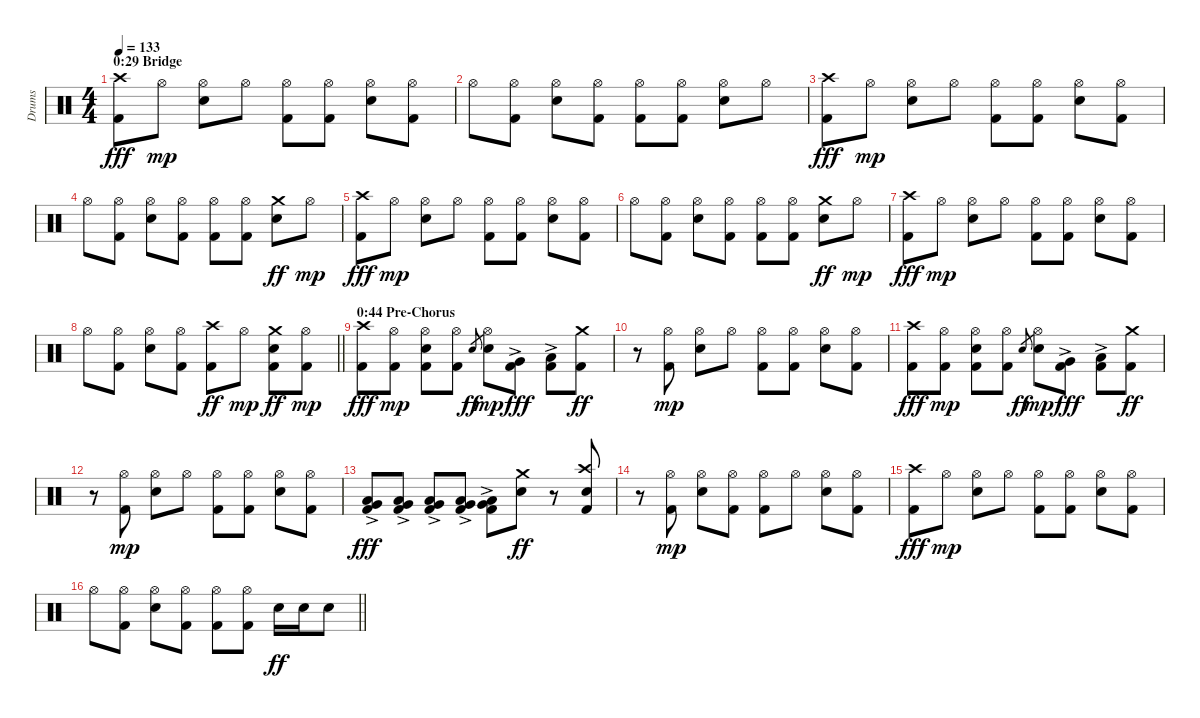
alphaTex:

\track ("Drums" "Drums") {instrument percussion}
\staff {score}
\articulation defaults
\ts (4 4)
\section ("" "0:29 Bridge")
\tempo 133
\clef neutral
\ks c
("Kick (hit) 2" "Crash high (hit)").8{dy fff} "Hi-Hat (open)".8{dy mp} ("Electric Snare (hit)" "Hi-Hat (open)").8 "Hi-Hat (open)".8 ("Kick (hit) 2" "Hi-Hat (open)").8 ("Kick (hit) 2" "Hi-Hat (open)").8 ("Electric Snare (hit)" "Hi-Hat (open)").8 ("Kick (hit) 2" "Hi-Hat (open)").8 |
"Hi-Hat (open)".8 ("Kick (hit) 2" "Hi-Hat (open)").8 ("Electric Snare (hit)" "Hi-Hat (open)").8 ("Kick (hit) 2" "Hi-Hat (open)").8 ("Kick (hit) 2" "Hi-Hat (open)").8 ("Kick (hit) 2" "Hi-Hat (open)").8 ("Electric Snare (hit)" "Hi-Hat (open)").8 "Hi-Hat (open)".8 |
("Kick (hit) 2" "Crash high (hit)").8{dy fff} "Hi-Hat (open)".8{dy mp} ("Electric Snare (hit)" "Hi-Hat (open)").8 "Hi-Hat (open)".8 ("Kick (hit) 2" "Hi-Hat (open)").8 ("Kick (hit) 2" "Hi-Hat (open)").8 ("Electric Snare (hit)" "Hi-Hat (open)").8 ("Kick (hit) 2" "Hi-Hat (open)").8 |
"Hi-Hat (open)".8 ("Kick (hit) 2" "Hi-Hat (open)").8 ("Electric Snare (hit)" "Hi-Hat (open)").8 ("Kick (hit) 2" "Hi-Hat (open)").8 ("Kick (hit) 2" "Hi-Hat (open)").8 ("Kick (hit) 2" "Hi-Hat (open)").8 ("Electric Snare (hit)" "Crash medium (hit)").8{dy ff} "Hi-Hat (open)".8{dy mp} |
("Kick (hit) 2" "Crash high (hit)").8{dy fff} "Hi-Hat (open)".8{dy mp} ("Electric Snare (hit)" "Hi-Hat (open)").8 "Hi-Hat (open)".8 ("Kick (hit) 2" "Hi-Hat (open)").8 ("Kick (hit) 2" "Hi-Hat (open)").8 ("Electric Snare (hit)" "Hi-Hat (open)").8 ("Kick (hit) 2" "Hi-Hat (open)").8 |
"Hi-Hat (open)".8 ("Kick (hit) 2" "Hi-Hat (open)").8 ("Electric Snare (hit)" "Hi-Hat (open)").8 ("Kick (hit) 2" "Hi-Hat (open)").8 ("Kick (hit) 2" "Hi-Hat (open)").8 ("Kick (hit) 2" "Hi-Hat (open)").8 ("Electric Snare (hit)" "Crash medium (hit)").8{dy ff} "Hi-Hat (open)".8{dy mp} |
("Kick (hit) 2" "Crash high (hit)").8{dy fff} "Hi-Hat (open)".8{dy mp} ("Electric Snare (hit)" "Hi-Hat (open)").8 "Hi-Hat (open)".8 ("Kick (hit) 2" "Hi-Hat (open)").8 ("Kick (hit) 2" "Hi-Hat (open)").8 ("Electric Snare (hit)" "Hi-Hat (open)").8 ("Kick (hit) 2" "Hi-Hat (open)").8 |
\barLineRight lightlight "Hi-Hat (open)".8
("Kick (hit) 2" "Hi-Hat (open)").8 ("Electric Snare (hit)" "Hi-Hat (open)").8 ("Kick (hit) 2" "Hi-Hat (open)").8 ("Kick (hit) 2" "Crash high (hit)").8{dy ff} "Hi-Hat (open)".8{dy mp} ("Kick (hit) 2" "Electric Snare (hit)" "Crash medium (hit)").8{dy ff} ("Kick (hit) 2" "Hi-Hat (open)").8{dy mp} |
\section ("" "0:44 Pre-Chorus")
("Kick (hit) 2" "Crash high (hit)").8{dy fff} ("Kick (hit) 2" "Hi-Hat (open)").8{dy mp} ("Kick (hit) 2" "Electric Snare (hit)" "Hi-Hat (open)").8 ("Kick (hit) 2" "Hi-Hat (open)").8 "Electric Snare (hit)".8{gr dy ff} ("Electric Snare (hit)" "Hi-Hat (open)").8{dy mp} ("Kick (hit) 2" "Very Low Tom (hit)"{ac}).8{dy fff} ("Kick (hit) 2" "Low Tom (hit)"{ac}).8 ("Kick (hit) 2" "Crash medium (hit)").8{dy ff} |
r.8 ("Kick (hit) 2" "Hi-Hat (open)").8{dy mp} ("Electric Snare (hit)" "Hi-Hat (open)").8 "Hi-Hat (open)".8 ("Kick (hit) 2" "Hi-Hat (open)").8 ("Kick (hit) 2" "Hi-Hat (open)").8 ("Electric Snare (hit)" "Hi-Hat (open)").8 ("Kick (hit) 2" "Hi-Hat (open)").8 |
("Kick (hit) 2" "Crash high (hit)").8{dy fff} ("Kick (hit) 2" "Hi-Hat (open)").8{dy mp} ("Kick (hit) 2" "Electric Snare (hit)" "Hi-Hat (open)").8 ("Kick (hit) 2" "Hi-Hat (open)").8 "Electric Snare (hit)".8{gr dy ff} ("Electric Snare (hit)" "Hi-Hat (open)").8{dy mp} ("Kick (hit) 2" "Very Low Tom (hit)"{ac}).8{dy fff} ("Kick (hit) 2" "Low Tom (hit)"{ac}).8 ("Kick (hit) 2" "Crash medium (hit)").8{dy ff} |
r.8 ("Kick (hit) 2" "Hi-Hat (open)").8{dy mp} ("Electric Snare (hit)" "Hi-Hat (open)").8 "Hi-Hat (open)".8 ("Kick (hit) 2" "Hi-Hat (open)").8 ("Kick (hit) 2" "Hi-Hat (open)").8 ("Electric Snare (hit)" "Hi-Hat (open)").8 ("Kick (hit) 2" "Hi-Hat (open)").8 |
("Kick (hit) 2" "Very Low Tom (hit)"{ac} "Low Tom (hit)").8{dy fff} ("Kick (hit) 2" "Very Low Tom (hit)"{ac} "Low Tom (hit)").8 ("Kick (hit) 2" "Very Low Tom (hit)"{ac} "Low Tom (hit)").8 ("Kick (hit) 2" "Very Low Tom (hit)"{ac} "Low Tom (hit)").8 ("Kick (hit) 2" "Very Low Tom (hit)"{ac} "Low Tom (hit)").8 ("Electric Snare (hit)" "Crash medium (hit)").8{dy ff} r.8 ("Kick (hit) 2" "Electric Snare (hit)" "Crash high (hit)").8 |
r.8 ("Kick (hit) 2" "Hi-Hat (open)").8{dy mp} ("Electric Snare (hit)" "Hi-Hat (open)").8 ("Kick (hit) 2" "Hi-Hat (open)").8 ("Kick (hit) 2" "Hi-Hat (open)").8 "Hi-Hat (open)".8 ("Electric Snare (hit)" "Hi-Hat (open)").8 ("Kick (hit) 2" "Hi-Hat (open)").8 |
("Kick (hit) 2" "Crash high (hit)").8{dy fff} "Hi-Hat (open)".8{dy mp} ("Electric Snare (hit)" "Hi-Hat (open)").8 "Hi-Hat (open)".8 ("Kick (hit) 2" "Hi-Hat (open)").8 ("Kick (hit) 2" "Hi-Hat (open)").8 ("Electric Snare (hit)" "Hi-Hat (open)").8 ("Kick (hit) 2" "Hi-Hat (open)").8 |
\barLineRight lightlight "Hi-Hat (open)".8
("Kick (hit) 2" "Hi-Hat (open)").8 ("Electric Snare (hit)" "Hi-Hat (open)").8 ("Kick (hit) 2" "Hi-Hat (open)").8 ("Kick (hit) 2" "Hi-Hat (open)").8 ("Kick (hit) 2" "Hi-Hat (open)").8 "Electric Snare (hit)".16{dy ff} "Electric Snare (hit)".16 "Electric Snare (hit)".8
